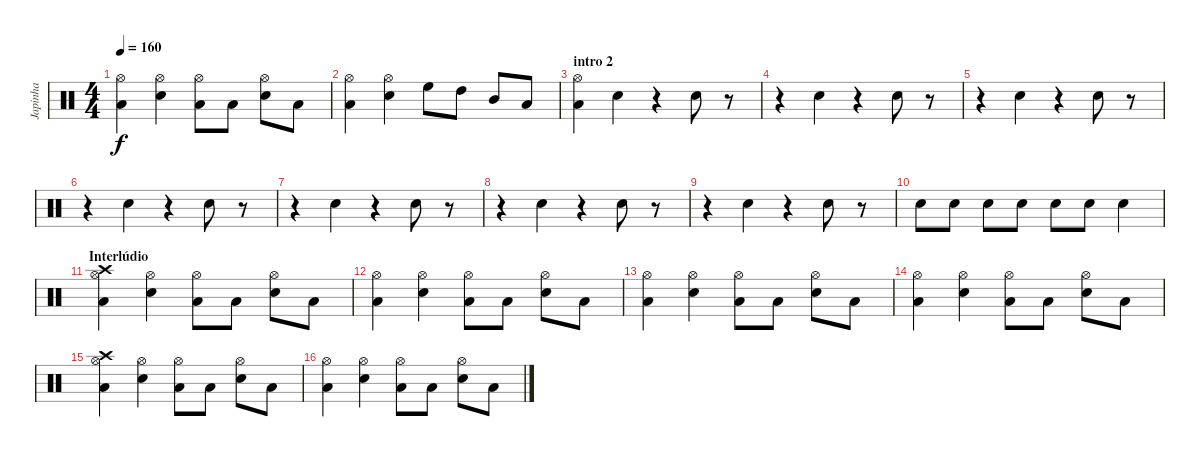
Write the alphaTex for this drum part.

\track ("Japinha" "Japinha") {instrument percussion}
\staff {score}
\articulation defaults
\ts (4 4)
\tempo 160
\clef neutral
\ks c
("Hi-Hat (open)" "Low Tom (hit)").4{dy f} ("Hi-Hat (open)" "Snare (hit) 2").4 ("Hi-Hat (open)" "Low Tom (hit)").8 "Low Tom (hit)".8 ("Hi-Hat (open)" "Snare (hit) 2").8 "Low Tom (hit)".8 |
("Hi-Hat (open)" "Low Tom (hit)").4 ("Hi-Hat (open)" "Snare (hit) 2").4 "High Floor Tom (hit)".8 "High Tom (hit)".8 "Mid Tom (hit)".8 "Low Tom (hit)".8 |
\section ("" "intro 2")
("Hi-Hat (open)" "Low Tom (hit)").4 "Snare (hit) 2".4 r.4 "Snare (hit) 2".8 r.8 |
r.4 "Snare (hit) 2".4 r.4 "Snare (hit) 2".8 r.8 |
r.4 "Snare (hit) 2".4 r.4 "Snare (hit) 2".8 r.8 |
r.4 "Snare (hit) 2".4 r.4 "Snare (hit) 2".8 r.8 |
r.4 "Snare (hit) 2".4 r.4 "Snare (hit) 2".8 r.8 |
r.4 "Snare (hit) 2".4 r.4 "Snare (hit) 2".8 r.8 |
r.4 "Snare (hit) 2".4 r.4 "Snare (hit) 2".8 r.8 |
"Snare (hit) 2".8 "Snare (hit) 2".8 "Snare (hit) 2".8 "Snare (hit) 2".8 "Snare (hit) 2".8 "Electric Snare (hit)".8 "Snare (hit) 2".4 |
\section ("" "Interlúdio")
("Crash high (hit)" "Hi-Hat (open)" "Low Tom (hit)").4 ("Hi-Hat (open)" "Snare (hit) 2").4 ("Hi-Hat (open)" "Low Tom (hit)").8 "Low Tom (hit)".8 ("Hi-Hat (open)" "Snare (hit) 2").8 "Low Tom (hit)".8 |
("Hi-Hat (open)" "Low Tom (hit)").4 ("Hi-Hat (open)" "Snare (hit) 2").4 ("Hi-Hat (open)" "Low Tom (hit)").8 "Low Tom (hit)".8 ("Hi-Hat (open)" "Snare (hit) 2").8 "Low Tom (hit)".8 |
("Hi-Hat (open)" "Low Tom (hit)").4 ("Hi-Hat (open)" "Snare (hit) 2").4 ("Hi-Hat (open)" "Low Tom (hit)").8 "Low Tom (hit)".8 ("Hi-Hat (open)" "Snare (hit) 2").8 "Low Tom (hit)".8 |
("Hi-Hat (open)" "Low Tom (hit)").4 ("Hi-Hat (open)" "Snare (hit) 2").4 ("Hi-Hat (open)" "Low Tom (hit)").8 "Low Tom (hit)".8 ("Hi-Hat (open)" "Snare (hit) 2").8 "Low Tom (hit)".8 |
("Crash high (hit)" "Hi-Hat (open)" "Low Tom (hit)").4 ("Hi-Hat (open)" "Snare (hit) 2").4 ("Hi-Hat (open)" "Low Tom (hit)").8 "Low Tom (hit)".8 ("Hi-Hat (open)" "Snare (hit) 2").8 "Low Tom (hit)".8 |
("Hi-Hat (open)" "Low Tom (hit)").4 ("Hi-Hat (open)" "Snare (hit) 2").4 ("Hi-Hat (open)" "Low Tom (hit)").8 "Low Tom (hit)".8 ("Hi-Hat (open)" "Snare (hit) 2").8 "Low Tom (hit)".8
